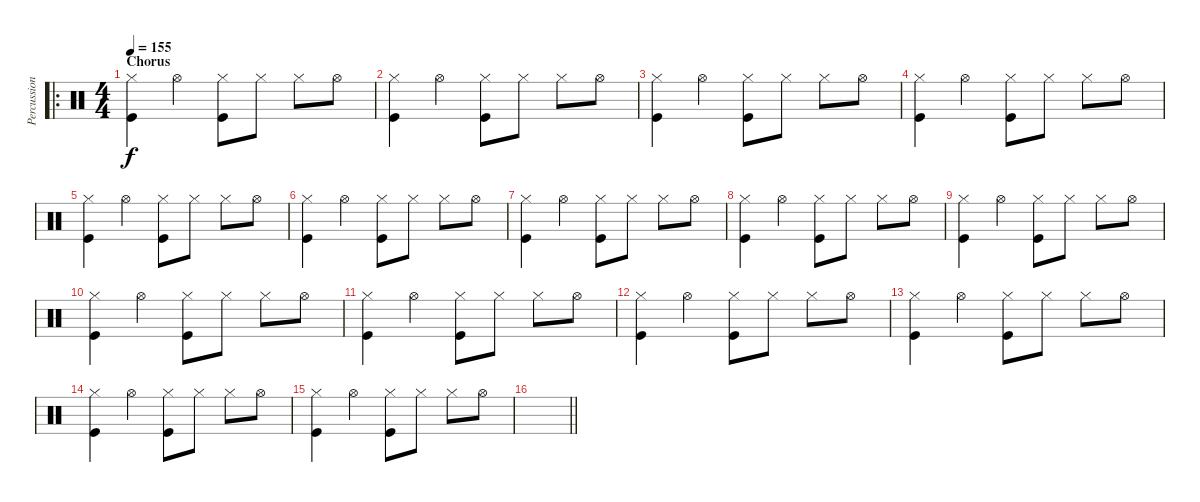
\track ("Percussion" "Percussion") {instrument percussion}
\staff {score}
\articulation defaults
\ro
\ts (4 4)
\section ("" "Chorus")
\tempo 155
\clef neutral
\ks c
("Kick (hit)" "Hi-Hat (closed)").4{dy f} "Hi-Hat (open)".4 ("Hi-Hat (closed)" "Kick (hit)").8 "Hi-Hat (closed)".8 "Hi-Hat (closed)".8 "Hi-Hat (open)".8 |
("Kick (hit)" "Hi-Hat (closed)").4 "Hi-Hat (open)".4 ("Hi-Hat (closed)" "Kick (hit)").8 "Hi-Hat (closed)".8 "Hi-Hat (closed)".8 "Hi-Hat (open)".8 |
("Kick (hit)" "Hi-Hat (closed)").4 "Hi-Hat (open)".4 ("Hi-Hat (closed)" "Kick (hit)").8 "Hi-Hat (closed)".8 "Hi-Hat (closed)".8 "Hi-Hat (open)".8 |
("Kick (hit)" "Hi-Hat (closed)").4 "Hi-Hat (open)".4 ("Hi-Hat (closed)" "Kick (hit)").8 "Hi-Hat (closed)".8 "Hi-Hat (closed)".8 "Hi-Hat (open)".8 |
("Kick (hit)" "Hi-Hat (closed)").4 "Hi-Hat (open)".4 ("Hi-Hat (closed)" "Kick (hit)").8 "Hi-Hat (closed)".8 "Hi-Hat (closed)".8 "Hi-Hat (open)".8 |
("Kick (hit)" "Hi-Hat (closed)").4 "Hi-Hat (open)".4 ("Hi-Hat (closed)" "Kick (hit)").8 "Hi-Hat (closed)".8 "Hi-Hat (closed)".8 "Hi-Hat (open)".8 |
("Kick (hit)" "Hi-Hat (closed)").4 "Hi-Hat (open)".4 ("Hi-Hat (closed)" "Kick (hit)").8 "Hi-Hat (closed)".8 "Hi-Hat (closed)".8 "Hi-Hat (open)".8 |
("Kick (hit)" "Hi-Hat (closed)").4 "Hi-Hat (open)".4 ("Hi-Hat (closed)" "Kick (hit)").8 "Hi-Hat (closed)".8 "Hi-Hat (closed)".8 "Hi-Hat (open)".8 |
("Kick (hit)" "Hi-Hat (closed)").4 "Hi-Hat (open)".4 ("Hi-Hat (closed)" "Kick (hit)").8 "Hi-Hat (closed)".8 "Hi-Hat (closed)".8 "Hi-Hat (open)".8 |
("Kick (hit)" "Hi-Hat (closed)").4 "Hi-Hat (open)".4 ("Hi-Hat (closed)" "Kick (hit)").8 "Hi-Hat (closed)".8 "Hi-Hat (closed)".8 "Hi-Hat (open)".8 |
("Kick (hit)" "Hi-Hat (closed)").4 "Hi-Hat (open)".4 ("Hi-Hat (closed)" "Kick (hit)").8 "Hi-Hat (closed)".8 "Hi-Hat (closed)".8 "Hi-Hat (open)".8 |
("Kick (hit)" "Hi-Hat (closed)").4 "Hi-Hat (open)".4 ("Hi-Hat (closed)" "Kick (hit)").8 "Hi-Hat (closed)".8 "Hi-Hat (closed)".8 "Hi-Hat (open)".8 |
("Kick (hit)" "Hi-Hat (closed)").4 "Hi-Hat (open)".4 ("Hi-Hat (closed)" "Kick (hit)").8 "Hi-Hat (closed)".8 "Hi-Hat (closed)".8 "Hi-Hat (open)".8 |
("Kick (hit)" "Hi-Hat (closed)").4 "Hi-Hat (open)".4 ("Hi-Hat (closed)" "Kick (hit)").8 "Hi-Hat (closed)".8 "Hi-Hat (closed)".8 "Hi-Hat (open)".8 |
("Kick (hit)" "Hi-Hat (closed)").4 "Hi-Hat (open)".4 ("Hi-Hat (closed)" "Kick (hit)").8 "Hi-Hat (closed)".8 "Hi-Hat (closed)".8 "Hi-Hat (open)".8 |
\barLineRight lightlight
